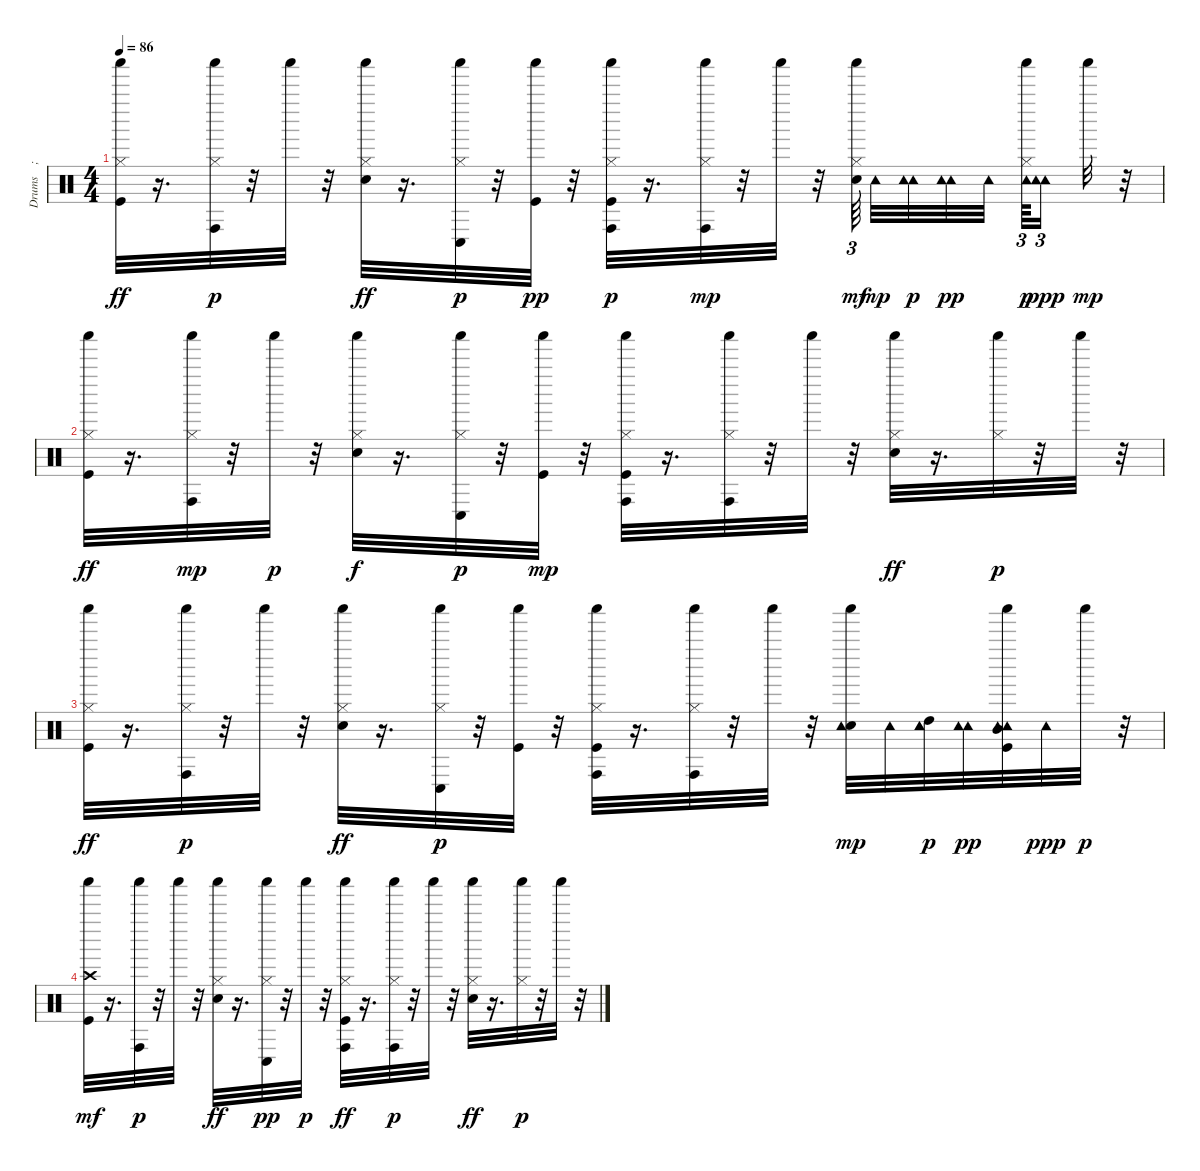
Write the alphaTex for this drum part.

\track ("Drums    ; Standard" "Drums    ;") {instrument percussion}
\staff {score}
\articulation defaults
\ts (4 4)
\tempo 86
\clef neutral
\ks c
("Kick (hit)" "Shaker (hit)" "Hi-Hat (closed)").32{dy ff} r.16{d} ("Shaker (hit)" "Conga high (hit)" "Hi-Hat (closed)").32{dy p} r.32 "Shaker (hit)".32 r.32 ("Shaker (hit)" "Electric Snare (hit)" "Hi-Hat (closed)").32{dy ff} r.16{d} ("Conga low (hit)" "Shaker (hit)" "Hi-Hat (closed)").32{dy p} r.32 ("Shaker (hit)" "Kick (hit)").32{dy pp} r.32 ("Kick (hit)" "Shaker (hit)" "Conga high (hit)" "Hi-Hat (closed)").32{dy p} r.16{d} ("Shaker (hit)" "Hi-Hat (closed)" "Conga high (hit)").32{dy mp} r.32 "Shaker (hit)".32 r.32 ("Shaker (hit)" "Electric Snare (hit)" "Hi-Hat (closed)").64{tu (3 2) dy mf} "Tambourine (hit)".32{dy mp} ("Tambourine (hit)" "Tambourine (hit)").32{dy p} ("Tambourine (hit)" "Tambourine (hit)").32{dy pp} "Tambourine (hit)".32 ("Tambourine (hit)" "Hi-Hat (closed)" "Shaker (hit)").64{tu (3 2) dy p} ("Tambourine (hit)" "Tambourine (hit)").16{tu (3 2) dy ppp} "Shaker (hit)".32{dy mp} r.32 |
("Kick (hit)" "Shaker (hit)" "Hi-Hat (closed)").32{dy ff} r.16{d} ("Shaker (hit)" "Conga high (hit)" "Hi-Hat (closed)").32{dy mp} r.32 "Shaker (hit)".32{dy p} r.32 ("Electric Snare (hit)" "Shaker (hit)" "Hi-Hat (closed)").32{dy f} r.16{d} ("Shaker (hit)" "Conga low (hit)" "Hi-Hat (closed)").32{dy p} r.32 ("Kick (hit)" "Shaker (hit)").32{dy mp} r.32 ("Kick (hit)" "Shaker (hit)" "Conga high (hit)" "Hi-Hat (closed)").32 r.16{d} ("Shaker (hit)" "Hi-Hat (closed)" "Conga high (hit)").32 r.32 "Shaker (hit)".32 r.32 ("Electric Snare (hit)" "Shaker (hit)" "Hi-Hat (closed)").32{dy ff} r.16{d} ("Shaker (hit)" "Hi-Hat (closed)").32{dy p} r.32 "Shaker (hit)".32 r.32 |
("Shaker (hit)" "Kick (hit)" "Hi-Hat (closed)").32{dy ff} r.16{d} ("Shaker (hit)" "Conga high (hit)" "Hi-Hat (closed)").32{dy p} r.32 "Shaker (hit)".32 r.32 ("Shaker (hit)" "Electric Snare (hit)" "Hi-Hat (closed)").32{dy ff} r.16{d} ("Shaker (hit)" "Conga low (hit)" "Hi-Hat (closed)").32{dy p} r.32 ("Kick (hit)" "Shaker (hit)").32 r.32 ("Kick (hit)" "Shaker (hit)" "Conga high (hit)" "Hi-Hat (closed)").32 r.16{d} ("Shaker (hit)" "Conga high (hit)" "Hi-Hat (closed)").32 r.32 "Shaker (hit)".32 r.32 ("Electric Snare (hit)" "Shaker (hit)" "Tambourine (hit)").32{dy mp} "Tambourine (hit)".32 ("Tambourine (hit)" "High Tom (hit)" "Tambourine (hit)").32{dy p} ("Tambourine (hit)" "Tambourine (hit)").32{dy pp} ("Tambourine (hit)" "Shaker (hit)" "Kick (hit)" "Mid Tom (hit)" "Tambourine (hit)").32 "Tambourine (hit)".32{dy ppp} "Shaker (hit)".32{dy p} r.32 |
("Crash high (hit)" "Shaker (hit)" "Kick (hit)").32{dy mf} r.16{d} ("Shaker (hit)" "Conga high (hit)").32{dy p} r.32 "Shaker (hit)".32 r.32 ("Electric Snare (hit)" "Shaker (hit)" "Hi-Hat (closed)").32{dy ff} r.16{d} ("Shaker (hit)" "Hi-Hat (closed)" "Conga low (hit)").32{dy pp} r.32 "Shaker (hit)".32{dy p} r.32 ("Kick (hit)" "Shaker (hit)" "Conga high (hit)" "Hi-Hat (closed)").32{dy ff} r.16{d} ("Conga high (hit)" "Shaker (hit)" "Hi-Hat (closed)").32{dy p} r.32 "Shaker (hit)".32 r.32 ("Electric Snare (hit)" "Shaker (hit)" "Hi-Hat (closed)").32{dy ff} r.16{d} ("Shaker (hit)" "Hi-Hat (closed)").32{dy p} r.32 "Shaker (hit)".32 r.32
